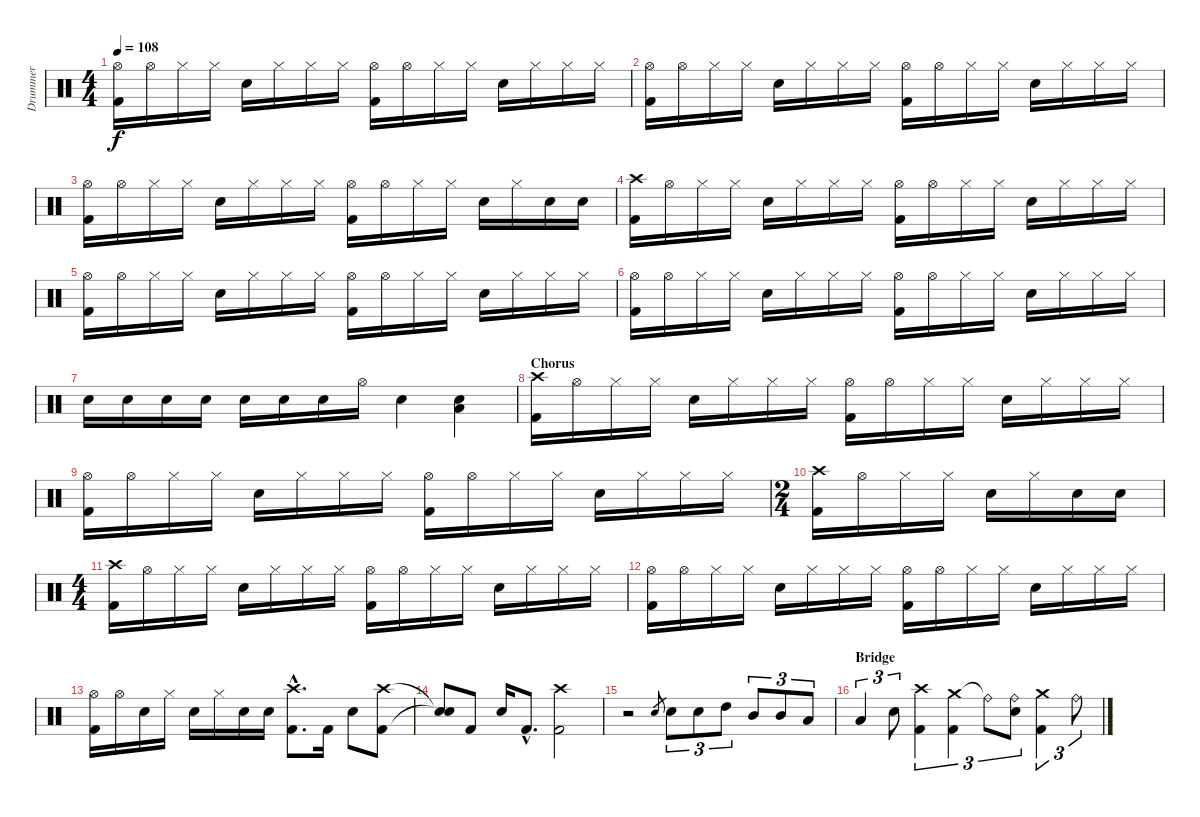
\track ("Drummer" "Drummer") {instrument percussion}
\staff {score}
\articulation defaults
\ts (4 4)
\tempo 108
\clef neutral
\ks c
("Hi-Hat (open)" "Kick (hit) 2").16{dy f} "Hi-Hat (open)".16 "Hi-Hat (closed)".16 "Hi-Hat (closed)".16 "Electric Snare (hit)".16 "Hi-Hat (closed)".16 "Hi-Hat (closed)".16 "Hi-Hat (closed)".16 ("Hi-Hat (open)" "Kick (hit) 2").16 "Hi-Hat (open)".16 "Hi-Hat (closed)".16 "Hi-Hat (closed)".16 "Electric Snare (hit)".16 "Hi-Hat (closed)".16 "Hi-Hat (closed)".16 "Hi-Hat (closed)".16 |
("Hi-Hat (open)" "Kick (hit) 2").16 "Hi-Hat (open)".16 "Hi-Hat (closed)".16 "Hi-Hat (closed)".16 "Electric Snare (hit)".16 "Hi-Hat (closed)".16 "Hi-Hat (closed)".16 "Hi-Hat (closed)".16 ("Hi-Hat (open)" "Kick (hit) 2").16 "Hi-Hat (open)".16 "Hi-Hat (closed)".16 "Hi-Hat (closed)".16 "Electric Snare (hit)".16 "Hi-Hat (closed)".16 "Hi-Hat (closed)".16 "Hi-Hat (closed)".16 |
("Hi-Hat (open)" "Kick (hit) 2").16 "Hi-Hat (open)".16 "Hi-Hat (closed)".16 "Hi-Hat (closed)".16 "Electric Snare (hit)".16 "Hi-Hat (closed)".16 "Hi-Hat (closed)".16 "Hi-Hat (closed)".16 ("Hi-Hat (open)" "Kick (hit) 2").16 "Hi-Hat (open)".16 "Hi-Hat (closed)".16 "Hi-Hat (closed)".16 "Electric Snare (hit)".16 "Hi-Hat (closed)".16 "Electric Snare (hit)".16 "Electric Snare (hit)".16 |
("Crash high (hit)" "Kick (hit) 2").16 "Hi-Hat (open)".16 "Hi-Hat (closed)".16 "Hi-Hat (closed)".16 "Electric Snare (hit)".16 "Hi-Hat (closed)".16 "Hi-Hat (closed)".16 "Hi-Hat (closed)".16 ("Hi-Hat (open)" "Kick (hit) 2").16 "Hi-Hat (open)".16 "Hi-Hat (closed)".16 "Hi-Hat (closed)".16 "Electric Snare (hit)".16 "Hi-Hat (closed)".16 "Hi-Hat (closed)".16 "Hi-Hat (closed)".16 |
("Hi-Hat (open)" "Kick (hit) 2").16 "Hi-Hat (open)".16 "Hi-Hat (closed)".16 "Hi-Hat (closed)".16 "Electric Snare (hit)".16 "Hi-Hat (closed)".16 "Hi-Hat (closed)".16 "Hi-Hat (closed)".16 ("Hi-Hat (open)" "Kick (hit) 2").16 "Hi-Hat (open)".16 "Hi-Hat (closed)".16 "Hi-Hat (closed)".16 "Electric Snare (hit)".16 "Hi-Hat (closed)".16 "Hi-Hat (closed)".16 "Hi-Hat (closed)".16 |
("Hi-Hat (open)" "Kick (hit) 2").16 "Hi-Hat (open)".16 "Hi-Hat (closed)".16 "Hi-Hat (closed)".16 "Electric Snare (hit)".16 "Hi-Hat (closed)".16 "Hi-Hat (closed)".16 "Hi-Hat (closed)".16 ("Hi-Hat (open)" "Kick (hit) 2").16 "Hi-Hat (open)".16 "Hi-Hat (closed)".16 "Hi-Hat (closed)".16 "Electric Snare (hit)".16 "Hi-Hat (closed)".16 "Hi-Hat (closed)".16 "Hi-Hat (closed)".16 |
"Electric Snare (hit)".16 "Electric Snare (hit)".16 "Electric Snare (hit)".16 "Electric Snare (hit)".16 "Electric Snare (hit)".16 "Electric Snare (hit)".16 "Electric Snare (hit)".16 "Hi-Hat (open)".16 "Electric Snare (hit)".4 ("Low Floor Tom (hit)" "Electric Snare (hit)").4 |
\section ("" "Chorus")
("Crash high (hit)" "Kick (hit) 2").16 "Hi-Hat (open)".16 "Hi-Hat (closed)".16 "Hi-Hat (closed)".16 "Electric Snare (hit)".16 "Hi-Hat (closed)".16 "Hi-Hat (closed)".16 "Hi-Hat (closed)".16 ("Hi-Hat (open)" "Kick (hit) 2").16 "Hi-Hat (open)".16 "Hi-Hat (closed)".16 "Hi-Hat (closed)".16 "Electric Snare (hit)".16 "Hi-Hat (closed)".16 "Hi-Hat (closed)".16 "Hi-Hat (closed)".16 |
("Hi-Hat (open)" "Kick (hit) 2").16 "Hi-Hat (open)".16 "Hi-Hat (closed)".16 "Hi-Hat (closed)".16 "Electric Snare (hit)".16 "Hi-Hat (closed)".16 "Hi-Hat (closed)".16 "Hi-Hat (closed)".16 ("Hi-Hat (open)" "Kick (hit) 2").16 "Hi-Hat (open)".16 "Hi-Hat (closed)".16 "Hi-Hat (closed)".16 "Electric Snare (hit)".16 "Hi-Hat (closed)".16 "Hi-Hat (closed)".16 "Hi-Hat (closed)".16 |
\ts (2 4)
("Crash high (hit)" "Kick (hit) 2").16 "Hi-Hat (open)".16 "Hi-Hat (closed)".16 "Hi-Hat (closed)".16 "Electric Snare (hit)".16 "Hi-Hat (closed)".16 "Electric Snare (hit)".16 "Electric Snare (hit)".16 |
\ts (4 4)
("Crash high (hit)" "Kick (hit) 2").16 "Hi-Hat (open)".16 "Hi-Hat (closed)".16 "Hi-Hat (closed)".16 "Electric Snare (hit)".16 "Hi-Hat (closed)".16 "Hi-Hat (closed)".16 "Hi-Hat (closed)".16 ("Hi-Hat (open)" "Kick (hit) 2").16 "Hi-Hat (open)".16 "Hi-Hat (closed)".16 "Hi-Hat (closed)".16 "Electric Snare (hit)".16 "Hi-Hat (closed)".16 "Hi-Hat (closed)".16 "Hi-Hat (closed)".16 |
("Hi-Hat (open)" "Kick (hit) 2").16 "Hi-Hat (open)".16 "Hi-Hat (closed)".16 "Hi-Hat (closed)".16 "Electric Snare (hit)".16 "Hi-Hat (closed)".16 "Hi-Hat (closed)".16 "Hi-Hat (closed)".16 ("Hi-Hat (open)" "Kick (hit) 2").16 "Hi-Hat (open)".16 "Hi-Hat (closed)".16 "Hi-Hat (closed)".16 "Electric Snare (hit)".16 "Hi-Hat (closed)".16 "Hi-Hat (closed)".16 "Hi-Hat (closed)".16 |
("Hi-Hat (open)" "Kick (hit) 2").16 "Hi-Hat (open)".16 "Electric Snare (hit)".16 "Hi-Hat (closed)".16 "Electric Snare (hit)".16 "Hi-Hat (closed)".16 "Electric Snare (hit)".16 "Electric Snare (hit)".16 ("Crash high (hit)"{hac} "Kick (hit) 2"{hac}).8{d} "Kick (hit) 2".16 "Electric Snare (hit)".8 ("Crash high (hit)" "Kick (hit) 2").8 |
("Snare (hit)"{t} "Snare (hit)"{t}).8 "Kick (hit) 2".8 "Electric Snare (hit)".16 "Kick (hit) 2"{hac}.8{d} ("Crash high (hit)" "Kick (hit) 2").2 |
r.2 "Electric Snare (hit)".8{gr} "Electric Snare (hit)".8{tu (3 2)} "Electric Snare (hit)".8{tu (3 2)} "High Tom (hit)".8{tu (3 2)} "Mid Tom (hit)".8{tu (3 2)} "Mid Tom (hit)".8{tu (3 2)} "Low Tom (hit)".8{tu (3 2)} |
\section ("" "Bridge")
"Low Floor Tom (hit)".4{tu (3 2)} "Electric Snare (hit)".8{tu (3 2)} ("Crash high (hit)" "Kick (hit) 2").4{tu (3 2)} ("Crash medium (hit)" "Kick (hit) 2").4{tu (3 2)} "Ride (bell)"{t}.8{tu (3 2)} ("Ride (bell)" "Electric Snare (hit)").8{tu (3 2)} ("Crash medium (hit)" "Kick (hit) 2").4{tu (3 2)} "Ride (bell)".8{tu (3 2)}
